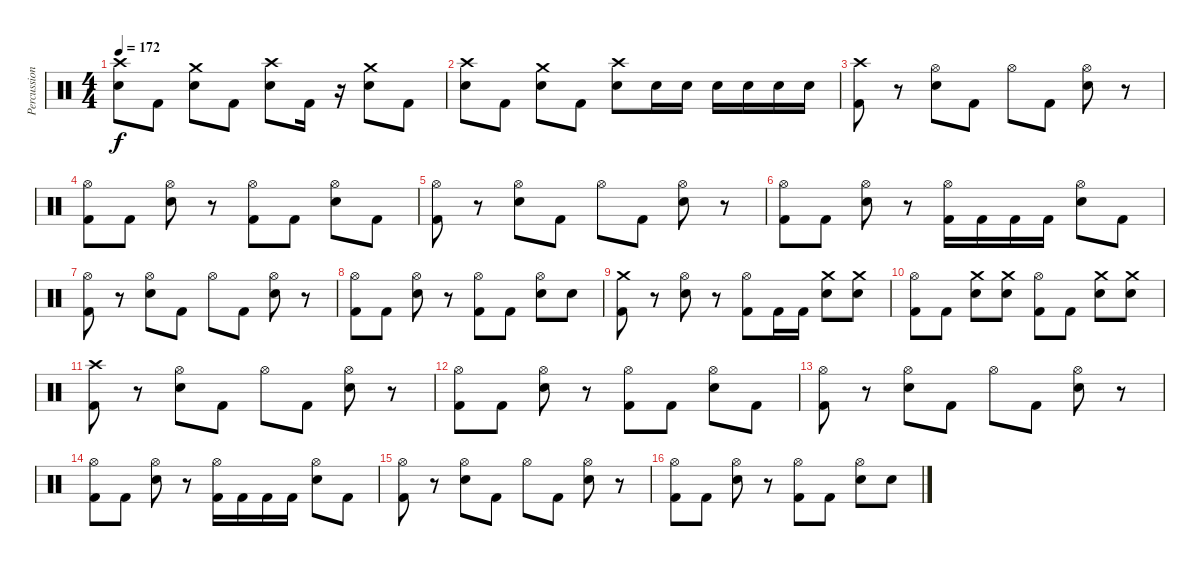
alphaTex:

\track ("Percussion" "Percussion") {instrument percussion}
\staff {score}
\articulation defaults
\ts (4 4)
\tempo 172
\clef neutral
\ks c
("Crash high (hit)" "Snare (hit) 2").8{dy f} "Kick (hit) 2".8 ("Crash medium (hit)" "Snare (hit) 2").8 "Kick (hit) 2".8 ("Crash high (hit)" "Snare (hit) 2").8 "Kick (hit) 2".16 r.16 ("Crash medium (hit)" "Snare (hit) 2").8 "Kick (hit) 2".8 |
("Crash high (hit)" "Snare (hit) 2").8 "Kick (hit) 2".8 ("Crash medium (hit)" "Snare (hit) 2").8 "Kick (hit) 2".8 ("Crash high (hit)" "Snare (hit) 2").8 "Snare (hit) 2".16 "Snare (hit) 2".16 "Snare (hit) 2".16 "Snare (hit) 2".16 "Snare (hit) 2".16 "Snare (hit) 2".16 |
("Crash high (hit)" "Kick (hit) 2").8 r.8 ("Hi-Hat (open)" "Snare (hit) 2").8 "Kick (hit) 2".8 "Hi-Hat (open)".8 "Kick (hit) 2".8 ("Hi-Hat (open)" "Snare (hit) 2").8 r.8 |
("Hi-Hat (open)" "Kick (hit) 2").8 "Kick (hit) 2".8 ("Hi-Hat (open)" "Snare (hit) 2").8 r.8 ("Hi-Hat (open)" "Kick (hit) 2").8 "Kick (hit) 2".8 ("Hi-Hat (open)" "Snare (hit) 2").8 "Kick (hit) 2".8 |
("Hi-Hat (open)" "Kick (hit) 2").8 r.8 ("Hi-Hat (open)" "Snare (hit) 2").8 "Kick (hit) 2".8 "Hi-Hat (open)".8 "Kick (hit) 2".8 ("Hi-Hat (open)" "Snare (hit) 2").8 r.8 |
("Hi-Hat (open)" "Kick (hit) 2").8 "Kick (hit) 2".8 ("Hi-Hat (open)" "Snare (hit) 2").8 r.8 ("Hi-Hat (open)" "Kick (hit) 2").16 "Kick (hit) 2".16 "Kick (hit) 2".16 "Kick (hit) 2".16 ("Hi-Hat (open)" "Snare (hit) 2").8 "Kick (hit) 2".8 |
("Hi-Hat (open)" "Kick (hit) 2").8 r.8 ("Hi-Hat (open)" "Snare (hit) 2").8 "Kick (hit) 2".8 "Hi-Hat (open)".8 "Kick (hit) 2".8 ("Hi-Hat (open)" "Snare (hit) 2").8 r.8 |
("Hi-Hat (open)" "Kick (hit) 2").8 "Kick (hit) 2".8 ("Hi-Hat (open)" "Snare (hit) 2").8 r.8 ("Hi-Hat (open)" "Kick (hit) 2").8 "Kick (hit) 2".8 ("Hi-Hat (open)" "Snare (hit) 2").8 "Snare (hit) 2".8 |
("Crash medium (hit)" "Kick (hit) 2").8 r.8 ("Hi-Hat (open)" "Snare (hit) 2").8 r.8 ("Hi-Hat (open)" "Kick (hit) 2").8 "Kick (hit) 2".16 "Kick (hit) 2".16 ("Crash medium (hit)" "Snare (hit) 2").8 ("Crash medium (hit)" "Snare (hit) 2").8 |
("Hi-Hat (open)" "Kick (hit) 2").8 "Kick (hit) 2".8 ("Crash medium (hit)" "Snare (hit) 2").8 ("Crash medium (hit)" "Snare (hit) 2").8 ("Hi-Hat (open)" "Kick (hit) 2").8 "Kick (hit) 2".8 ("Crash medium (hit)" "Snare (hit) 2").8 ("Crash medium (hit)" "Snare (hit) 2").8 |
("Crash high (hit)" "Kick (hit) 2").8 r.8 ("Hi-Hat (open)" "Snare (hit) 2").8 "Kick (hit) 2".8 "Hi-Hat (open)".8 "Kick (hit) 2".8 ("Hi-Hat (open)" "Snare (hit) 2").8 r.8 |
("Hi-Hat (open)" "Kick (hit) 2").8 "Kick (hit) 2".8 ("Hi-Hat (open)" "Snare (hit) 2").8 r.8 ("Hi-Hat (open)" "Kick (hit) 2").8 "Kick (hit) 2".8 ("Hi-Hat (open)" "Snare (hit) 2").8 "Kick (hit) 2".8 |
("Hi-Hat (open)" "Kick (hit) 2").8 r.8 ("Hi-Hat (open)" "Snare (hit) 2").8 "Kick (hit) 2".8 "Hi-Hat (open)".8 "Kick (hit) 2".8 ("Hi-Hat (open)" "Snare (hit) 2").8 r.8 |
("Hi-Hat (open)" "Kick (hit) 2").8 "Kick (hit) 2".8 ("Hi-Hat (open)" "Snare (hit) 2").8 r.8 ("Hi-Hat (open)" "Kick (hit) 2").16 "Kick (hit) 2".16 "Kick (hit) 2".16 "Kick (hit) 2".16 ("Hi-Hat (open)" "Snare (hit) 2").8 "Kick (hit) 2".8 |
("Hi-Hat (open)" "Kick (hit) 2").8 r.8 ("Hi-Hat (open)" "Snare (hit) 2").8 "Kick (hit) 2".8 "Hi-Hat (open)".8 "Kick (hit) 2".8 ("Hi-Hat (open)" "Snare (hit) 2").8 r.8 |
("Hi-Hat (open)" "Kick (hit) 2").8 "Kick (hit) 2".8 ("Hi-Hat (open)" "Snare (hit) 2").8 r.8 ("Hi-Hat (open)" "Kick (hit) 2").8 "Kick (hit) 2".8 ("Hi-Hat (open)" "Snare (hit) 2").8 "Snare (hit) 2".8
